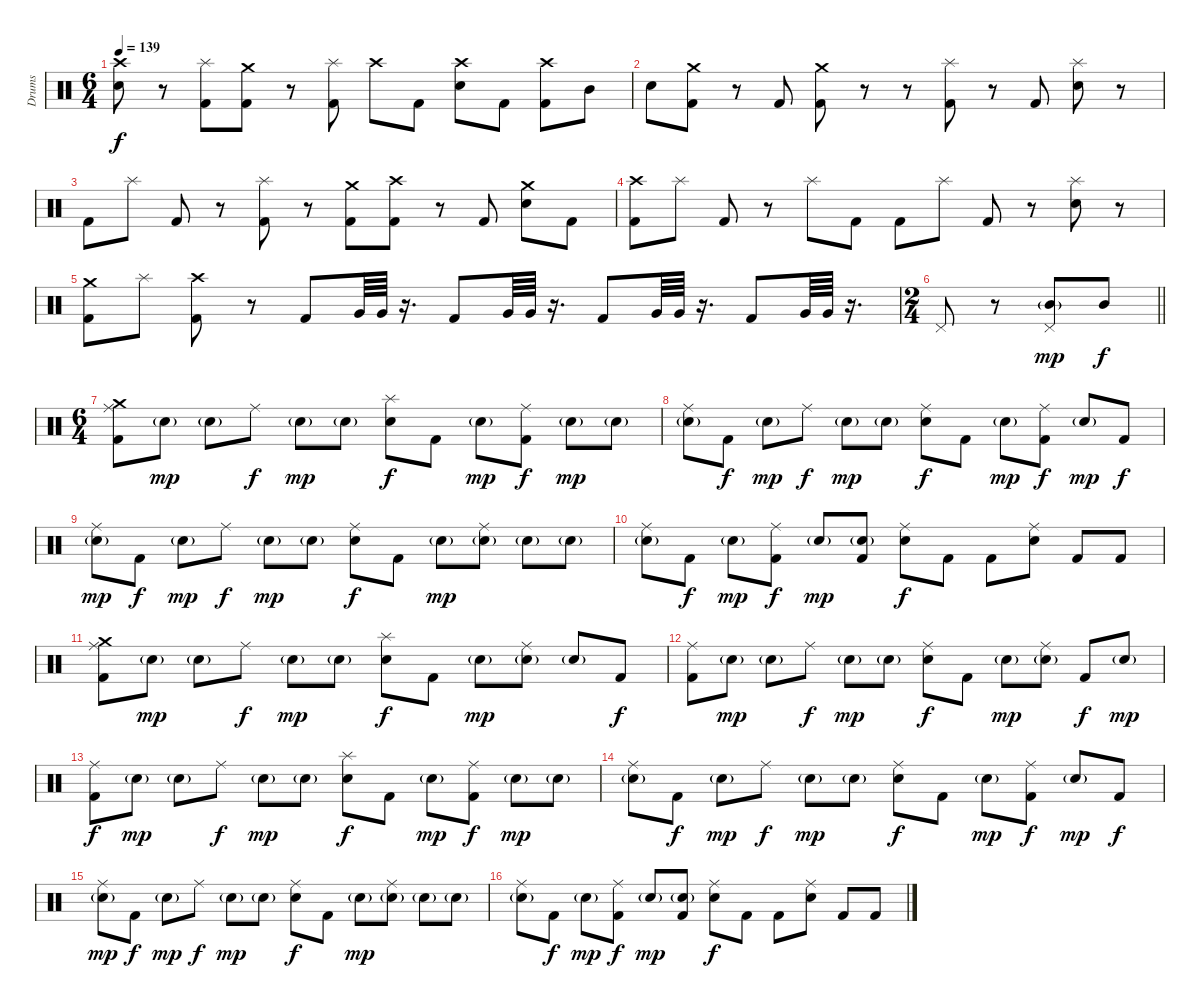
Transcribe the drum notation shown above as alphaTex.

\track ("Drums" "Drums") {instrument percussion}
\staff {score}
\articulation defaults
\ts (6 4)
\tempo 139
\clef neutral
\ks c
("Crash high (hit)" "Electric Snare (hit)").8{dy f} r.8 ("Splash (hit)" "Kick (hit) 2").8 ("Crash medium (hit)" "Kick (hit) 2").8 r.8 ("Splash (hit)" "Kick (hit) 2").8 "Crash high (hit)".8 "Kick (hit) 2".8 ("Crash high (hit)" "Electric Snare (hit)").8 "Kick (hit) 2".8 ("Crash high (hit)" "Kick (hit) 2").8 "Mid Tom (hit)".8 |
"Electric Snare (hit)".8 ("Crash medium (hit)" "Kick (hit) 2").8 r.8 "Kick (hit) 2".8 ("Crash medium (hit)" "Kick (hit) 2").8 r.8 r.8 ("Splash (hit)" "Kick (hit) 2").8 r.8 "Kick (hit) 2".8 ("Splash (hit)" "Electric Snare (hit)").8 r.8 |
"Kick (hit) 2".8 "Splash (hit)".8 "Kick (hit) 2".8 r.8 ("Splash (hit)" "Kick (hit) 2").8 r.8 ("Crash medium (hit)" "Kick (hit) 2").8 ("Crash high (hit)" "Kick (hit) 2").8 r.8 "Kick (hit) 2".8 ("Crash medium (hit)" "Electric Snare (hit)").8 "Kick (hit) 2".8 |
("Crash high (hit)" "Kick (hit) 2").8 "Splash (hit)".8 "Kick (hit) 2".8 r.8 "Splash (hit)".8 "Kick (hit) 2".8 "Kick (hit) 2".8 "Splash (hit)".8 "Kick (hit) 2".8 r.8 ("Splash (hit)" "Electric Snare (hit)").8 r.8 |
("Crash medium (hit)" "Kick (hit) 2").8 "Splash (hit)".8 ("Crash high (hit)" "Kick (hit) 2").8 r.8 "Kick (hit) 2".8 "Very Low Tom (hit)".64 "Very Low Tom (hit)".64 r.16{d} "Kick (hit) 2".8 "Very Low Tom (hit)".64 "Very Low Tom (hit)".64 r.16{d} "Kick (hit) 2".8 "Very Low Tom (hit)".64 "Very Low Tom (hit)".64 r.16{d} "Kick (hit) 2".8 "Very Low Tom (hit)".64 "Very Low Tom (hit)".64 r.16{d} |
\ts (2 4)
\barLineRight lightlight "Pedal Hi-Hat (hit)".8
r.8 ("Mid Tom (hit)"{g} "Pedal Hi-Hat (hit)").8{dy mp} "Mid Tom (hit)".8{dy f} |
\ts (6 4)
\section ("" "")
("Crash medium (hit)" "Ride (middle)" "Kick (hit) 2").8 "Electric Snare (hit)"{g}.8{dy mp} "Electric Snare (hit)"{g}.8 "Ride (middle)".8{dy f} "Electric Snare (hit)"{g}.8{dy mp} "Electric Snare (hit)"{g}.8 ("Splash (hit)" "Electric Snare (hit)").8{dy f} "Kick (hit) 2".8 "Electric Snare (hit)"{g}.8{dy mp} ("Ride (middle)" "Kick (hit) 2").8{dy f} "Electric Snare (hit)"{g}.8{dy mp} "Electric Snare (hit)"{g}.8 |
("Ride (middle)" "Electric Snare (hit)"{g}).8 "Kick (hit) 2".8{dy f} "Electric Snare (hit)"{g}.8{dy mp} "Ride (middle)".8{dy f} "Electric Snare (hit)"{g}.8{dy mp} "Electric Snare (hit)"{g}.8 ("Ride (middle)" "Electric Snare (hit)").8{dy f} "Kick (hit) 2".8 "Electric Snare (hit)"{g}.8{dy mp} ("Ride (middle)" "Kick (hit) 2").8{dy f} "Electric Snare (hit)"{g}.8{dy mp} "Kick (hit) 2".8{dy f} |
("Ride (middle)" "Electric Snare (hit)"{g}).8{dy mp} "Kick (hit) 2".8{dy f} "Electric Snare (hit)"{g}.8{dy mp} "Ride (middle)".8{dy f} "Electric Snare (hit)"{g}.8{dy mp} "Electric Snare (hit)"{g}.8 ("Ride (middle)" "Electric Snare (hit)").8{dy f} "Kick (hit) 2".8 "Electric Snare (hit)"{g}.8{dy mp} ("Ride (middle)" "Electric Snare (hit)"{g}).8 "Electric Snare (hit)"{g}.8 "Electric Snare (hit)"{g}.8 |
("Ride (middle)" "Electric Snare (hit)"{g}).8 "Kick (hit) 2".8{dy f} "Electric Snare (hit)"{g}.8{dy mp} ("Ride (middle)" "Kick (hit) 2").8{dy f} "Electric Snare (hit)"{g}.8{dy mp} ("Electric Snare (hit)"{g} "Kick (hit) 2").8 ("Ride (middle)" "Electric Snare (hit)").8{dy f} "Kick (hit) 2".8 "Kick (hit) 2".8 ("Ride (middle)" "Electric Snare (hit)").8 "Kick (hit) 2".8 "Kick (hit) 2".8 |
("Crash medium (hit)" "Ride (middle)" "Kick (hit) 2").8 "Electric Snare (hit)"{g}.8{dy mp} "Electric Snare (hit)"{g}.8 "Ride (middle)".8{dy f} "Electric Snare (hit)"{g}.8{dy mp} "Electric Snare (hit)"{g}.8 ("Splash (hit)" "Electric Snare (hit)").8{dy f} "Kick (hit) 2".8 "Electric Snare (hit)"{g}.8{dy mp} ("Ride (middle)" "Electric Snare (hit)"{g}).8 "Electric Snare (hit)"{g}.8 "Kick (hit) 2".8{dy f} |
("Ride (middle)" "Kick (hit) 2").8 "Electric Snare (hit)"{g}.8{dy mp} "Electric Snare (hit)"{g}.8 "Ride (middle)".8{dy f} "Electric Snare (hit)"{g}.8{dy mp} "Electric Snare (hit)"{g}.8 ("Ride (middle)" "Electric Snare (hit)").8{dy f} "Kick (hit) 2".8 "Electric Snare (hit)"{g}.8{dy mp} ("Ride (middle)" "Electric Snare (hit)"{g}).8 "Kick (hit) 2".8{dy f} "Electric Snare (hit)"{g}.8{dy mp} |
("Ride (middle)" "Kick (hit) 2").8{dy f} "Electric Snare (hit)"{g}.8{dy mp} "Electric Snare (hit)"{g}.8 "Ride (middle)".8{dy f} "Electric Snare (hit)"{g}.8{dy mp} "Electric Snare (hit)"{g}.8 ("Splash (hit)" "Electric Snare (hit)").8{dy f} "Kick (hit) 2".8 "Electric Snare (hit)"{g}.8{dy mp} ("Ride (middle)" "Kick (hit) 2").8{dy f} "Electric Snare (hit)"{g}.8{dy mp} "Electric Snare (hit)"{g}.8 |
("Ride (middle)" "Electric Snare (hit)"{g}).8 "Kick (hit) 2".8{dy f} "Electric Snare (hit)"{g}.8{dy mp} "Ride (middle)".8{dy f} "Electric Snare (hit)"{g}.8{dy mp} "Electric Snare (hit)"{g}.8 ("Ride (middle)" "Electric Snare (hit)").8{dy f} "Kick (hit) 2".8 "Electric Snare (hit)"{g}.8{dy mp} ("Ride (middle)" "Kick (hit) 2").8{dy f} "Electric Snare (hit)"{g}.8{dy mp} "Kick (hit) 2".8{dy f} |
("Ride (middle)" "Electric Snare (hit)"{g}).8{dy mp} "Kick (hit) 2".8{dy f} "Electric Snare (hit)"{g}.8{dy mp} "Ride (middle)".8{dy f} "Electric Snare (hit)"{g}.8{dy mp} "Electric Snare (hit)"{g}.8 ("Ride (middle)" "Electric Snare (hit)").8{dy f} "Kick (hit) 2".8 "Electric Snare (hit)"{g}.8{dy mp} ("Ride (middle)" "Electric Snare (hit)"{g}).8 "Electric Snare (hit)"{g}.8 "Electric Snare (hit)"{g}.8 |
("Ride (middle)" "Electric Snare (hit)"{g}).8 "Kick (hit) 2".8{dy f} "Electric Snare (hit)"{g}.8{dy mp} ("Ride (middle)" "Kick (hit) 2").8{dy f} "Electric Snare (hit)"{g}.8{dy mp} ("Electric Snare (hit)"{g} "Kick (hit) 2").8 ("Ride (middle)" "Electric Snare (hit)").8{dy f} "Kick (hit) 2".8 "Kick (hit) 2".8 ("Ride (middle)" "Electric Snare (hit)").8 "Kick (hit) 2".8 "Kick (hit) 2".8
